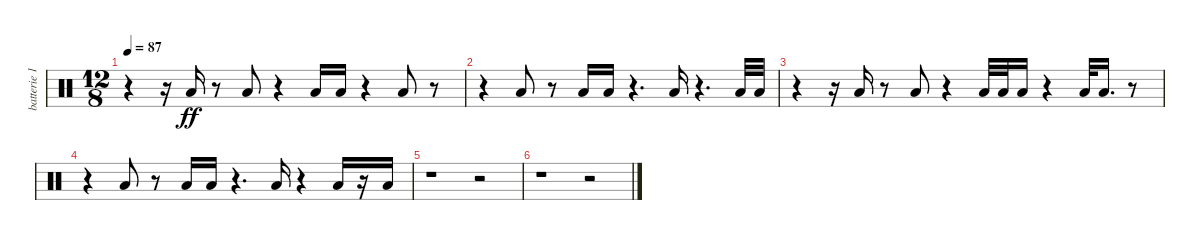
\track ("batterie 1" "batterie 1") {instrument percussion}
\staff {score}
\articulation defaults
\ts (12 8)
\tempo 87
\clef neutral
\ks c
r.4{dy ff} r.16 "Low Floor Tom (hit)".16 r.8 "Low Floor Tom (hit)".8 r.4 "Low Floor Tom (hit)".16 "Low Floor Tom (hit)".16 r.4 "Low Floor Tom (hit)".8 r.8 |
r.4 "Low Floor Tom (hit)".8 r.8 "Low Floor Tom (hit)".16 "Low Floor Tom (hit)".16 r.4{d} "Low Floor Tom (hit)".16 r.4{d} "Low Floor Tom (hit)".32 "Low Floor Tom (hit)".32 |
r.4 r.16 "Low Floor Tom (hit)".16 r.8 "Low Floor Tom (hit)".8 r.4 "Low Floor Tom (hit)".32 "Low Floor Tom (hit)".32 "Low Floor Tom (hit)".16 r.4 "Low Floor Tom (hit)".32 "Low Floor Tom (hit)".16{d} r.8 |
r.4 "Low Floor Tom (hit)".8 r.8 "Low Floor Tom (hit)".16 "Low Floor Tom (hit)".16 r.4{d} "Low Floor Tom (hit)".16 r.4 "Low Floor Tom (hit)".16 r.16 "Low Floor Tom (hit)".16 |
r.1 r.2 |
r.1 r.2
